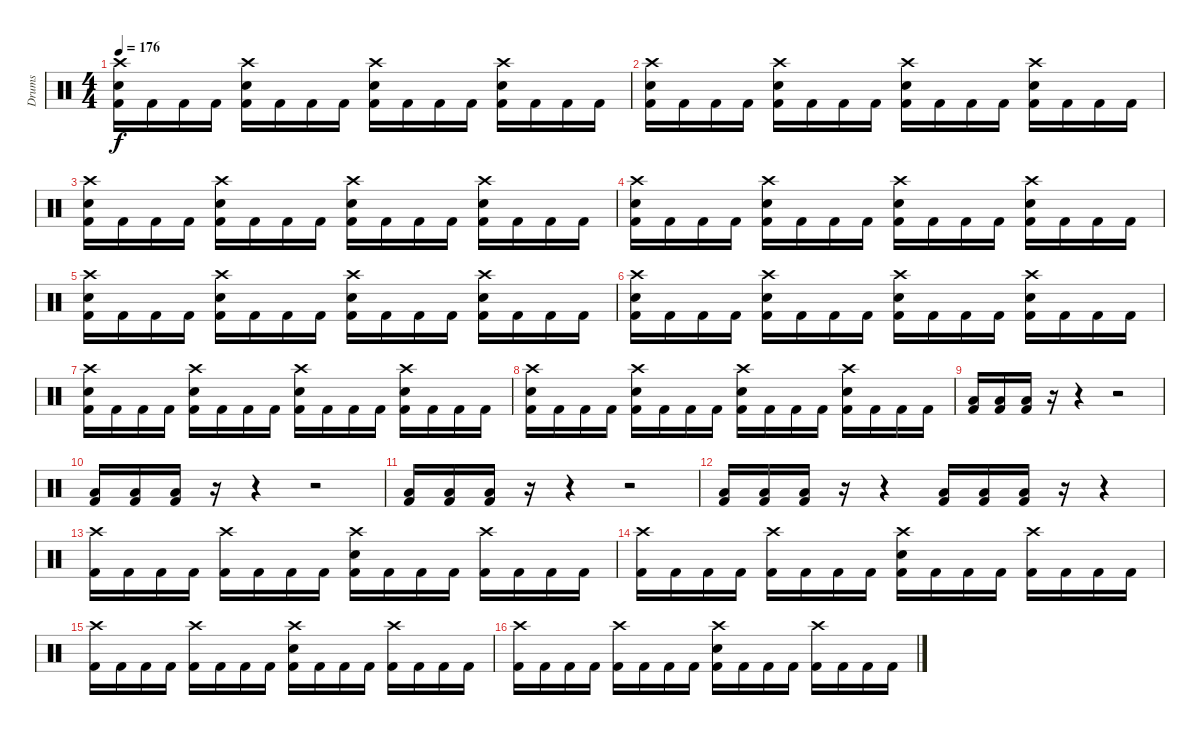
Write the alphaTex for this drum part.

\track ("Drums" "Drums") {instrument percussion}
\staff {score}
\articulation defaults
\ts (4 4)
\tempo 176
\clef neutral
\ks c
("Crash high (hit)" "Electric Snare (hit)" "Kick (hit) 2").16{dy f} "Kick (hit) 2".16 "Kick (hit) 2".16 "Kick (hit) 2".16 ("Crash high (hit)" "Electric Snare (hit)" "Kick (hit) 2").16 "Kick (hit) 2".16 "Kick (hit) 2".16 "Kick (hit) 2".16 ("Crash high (hit)" "Electric Snare (hit)" "Kick (hit) 2").16 "Kick (hit) 2".16 "Kick (hit) 2".16 "Kick (hit) 2".16 ("Crash high (hit)" "Electric Snare (hit)" "Kick (hit) 2").16 "Kick (hit) 2".16 "Kick (hit) 2".16 "Kick (hit) 2".16 |
("Crash high (hit)" "Electric Snare (hit)" "Kick (hit) 2").16 "Kick (hit) 2".16 "Kick (hit) 2".16 "Kick (hit) 2".16 ("Crash high (hit)" "Electric Snare (hit)" "Kick (hit) 2").16 "Kick (hit) 2".16 "Kick (hit) 2".16 "Kick (hit) 2".16 ("Crash high (hit)" "Electric Snare (hit)" "Kick (hit) 2").16 "Kick (hit) 2".16 "Kick (hit) 2".16 "Kick (hit) 2".16 ("Crash high (hit)" "Electric Snare (hit)" "Kick (hit) 2").16 "Kick (hit) 2".16 "Kick (hit) 2".16 "Kick (hit) 2".16 |
("Crash high (hit)" "Electric Snare (hit)" "Kick (hit) 2").16 "Kick (hit) 2".16 "Kick (hit) 2".16 "Kick (hit) 2".16 ("Crash high (hit)" "Electric Snare (hit)" "Kick (hit) 2").16 "Kick (hit) 2".16 "Kick (hit) 2".16 "Kick (hit) 2".16 ("Crash high (hit)" "Electric Snare (hit)" "Kick (hit) 2").16 "Kick (hit) 2".16 "Kick (hit) 2".16 "Kick (hit) 2".16 ("Crash high (hit)" "Electric Snare (hit)" "Kick (hit) 2").16 "Kick (hit) 2".16 "Kick (hit) 2".16 "Kick (hit) 2".16 |
("Crash high (hit)" "Electric Snare (hit)" "Kick (hit) 2").16 "Kick (hit) 2".16 "Kick (hit) 2".16 "Kick (hit) 2".16 ("Crash high (hit)" "Electric Snare (hit)" "Kick (hit) 2").16 "Kick (hit) 2".16 "Kick (hit) 2".16 "Kick (hit) 2".16 ("Crash high (hit)" "Electric Snare (hit)" "Kick (hit) 2").16 "Kick (hit) 2".16 "Kick (hit) 2".16 "Kick (hit) 2".16 ("Crash high (hit)" "Electric Snare (hit)" "Kick (hit) 2").16 "Kick (hit) 2".16 "Kick (hit) 2".16 "Kick (hit) 2".16 |
("Crash high (hit)" "Electric Snare (hit)" "Kick (hit) 2").16 "Kick (hit) 2".16 "Kick (hit) 2".16 "Kick (hit) 2".16 ("Crash high (hit)" "Electric Snare (hit)" "Kick (hit) 2").16 "Kick (hit) 2".16 "Kick (hit) 2".16 "Kick (hit) 2".16 ("Crash high (hit)" "Electric Snare (hit)" "Kick (hit) 2").16 "Kick (hit) 2".16 "Kick (hit) 2".16 "Kick (hit) 2".16 ("Crash high (hit)" "Electric Snare (hit)" "Kick (hit) 2").16 "Kick (hit) 2".16 "Kick (hit) 2".16 "Kick (hit) 2".16 |
("Crash high (hit)" "Electric Snare (hit)" "Kick (hit) 2").16 "Kick (hit) 2".16 "Kick (hit) 2".16 "Kick (hit) 2".16 ("Crash high (hit)" "Electric Snare (hit)" "Kick (hit) 2").16 "Kick (hit) 2".16 "Kick (hit) 2".16 "Kick (hit) 2".16 ("Crash high (hit)" "Electric Snare (hit)" "Kick (hit) 2").16 "Kick (hit) 2".16 "Kick (hit) 2".16 "Kick (hit) 2".16 ("Crash high (hit)" "Electric Snare (hit)" "Kick (hit) 2").16 "Kick (hit) 2".16 "Kick (hit) 2".16 "Kick (hit) 2".16 |
("Crash high (hit)" "Electric Snare (hit)" "Kick (hit) 2").16 "Kick (hit) 2".16 "Kick (hit) 2".16 "Kick (hit) 2".16 ("Crash high (hit)" "Electric Snare (hit)" "Kick (hit) 2").16 "Kick (hit) 2".16 "Kick (hit) 2".16 "Kick (hit) 2".16 ("Crash high (hit)" "Electric Snare (hit)" "Kick (hit) 2").16 "Kick (hit) 2".16 "Kick (hit) 2".16 "Kick (hit) 2".16 ("Crash high (hit)" "Electric Snare (hit)" "Kick (hit) 2").16 "Kick (hit) 2".16 "Kick (hit) 2".16 "Kick (hit) 2".16 |
("Crash high (hit)" "Electric Snare (hit)" "Kick (hit) 2").16 "Kick (hit) 2".16 "Kick (hit) 2".16 "Kick (hit) 2".16 ("Crash high (hit)" "Electric Snare (hit)" "Kick (hit) 2").16 "Kick (hit) 2".16 "Kick (hit) 2".16 "Kick (hit) 2".16 ("Crash high (hit)" "Electric Snare (hit)" "Kick (hit) 2").16 "Kick (hit) 2".16 "Kick (hit) 2".16 "Kick (hit) 2".16 ("Crash high (hit)" "Electric Snare (hit)" "Kick (hit) 2").16 "Kick (hit) 2".16 "Kick (hit) 2".16 "Kick (hit) 2".16 |
("Low Tom (hit)" "Kick (hit) 2").16 ("Low Tom (hit)" "Kick (hit) 2").16 ("Low Tom (hit)" "Kick (hit) 2").16 r.16 r.4 r.2 |
("Low Tom (hit)" "Kick (hit) 2").16 ("Low Tom (hit)" "Kick (hit) 2").16 ("Low Tom (hit)" "Kick (hit) 2").16 r.16 r.4 r.2 |
("Low Tom (hit)" "Kick (hit) 2").16 ("Low Tom (hit)" "Kick (hit) 2").16 ("Low Tom (hit)" "Kick (hit) 2").16 r.16 r.4 r.2 |
("Low Tom (hit)" "Kick (hit) 2").16 ("Low Tom (hit)" "Kick (hit) 2").16 ("Low Tom (hit)" "Kick (hit) 2").16 r.16 r.4 ("Low Tom (hit)" "Kick (hit) 2").16 ("Low Tom (hit)" "Kick (hit) 2").16 ("Low Tom (hit)" "Kick (hit) 2").16 r.16 r.4 |
("Crash high (hit)" "Kick (hit) 2").16 "Kick (hit) 2".16 "Kick (hit) 2".16 "Kick (hit) 2".16 ("Crash high (hit)" "Kick (hit) 2").16 "Kick (hit) 2".16 "Kick (hit) 2".16 "Kick (hit) 2".16 ("Crash high (hit)" "Electric Snare (hit)" "Kick (hit) 2").16 "Kick (hit) 2".16 "Kick (hit) 2".16 "Kick (hit) 2".16 ("Crash high (hit)" "Kick (hit) 2").16 "Kick (hit) 2".16 "Kick (hit) 2".16 "Kick (hit) 2".16 |
("Crash high (hit)" "Kick (hit) 2").16 "Kick (hit) 2".16 "Kick (hit) 2".16 "Kick (hit) 2".16 ("Crash high (hit)" "Kick (hit) 2").16 "Kick (hit) 2".16 "Kick (hit) 2".16 "Kick (hit) 2".16 ("Crash high (hit)" "Electric Snare (hit)" "Kick (hit) 2").16 "Kick (hit) 2".16 "Kick (hit) 2".16 "Kick (hit) 2".16 ("Crash high (hit)" "Kick (hit) 2").16 "Kick (hit) 2".16 "Kick (hit) 2".16 "Kick (hit) 2".16 |
("Crash high (hit)" "Kick (hit) 2").16 "Kick (hit) 2".16 "Kick (hit) 2".16 "Kick (hit) 2".16 ("Crash high (hit)" "Kick (hit) 2").16 "Kick (hit) 2".16 "Kick (hit) 2".16 "Kick (hit) 2".16 ("Crash high (hit)" "Electric Snare (hit)" "Kick (hit) 2").16 "Kick (hit) 2".16 "Kick (hit) 2".16 "Kick (hit) 2".16 ("Crash high (hit)" "Kick (hit) 2").16 "Kick (hit) 2".16 "Kick (hit) 2".16 "Kick (hit) 2".16 |
("Crash high (hit)" "Kick (hit) 2").16 "Kick (hit) 2".16 "Kick (hit) 2".16 "Kick (hit) 2".16 ("Crash high (hit)" "Kick (hit) 2").16 "Kick (hit) 2".16 "Kick (hit) 2".16 "Kick (hit) 2".16 ("Crash high (hit)" "Electric Snare (hit)" "Kick (hit) 2").16 "Kick (hit) 2".16 "Kick (hit) 2".16 "Kick (hit) 2".16 ("Crash high (hit)" "Kick (hit) 2").16 "Kick (hit) 2".16 "Kick (hit) 2".16 "Kick (hit) 2".16
